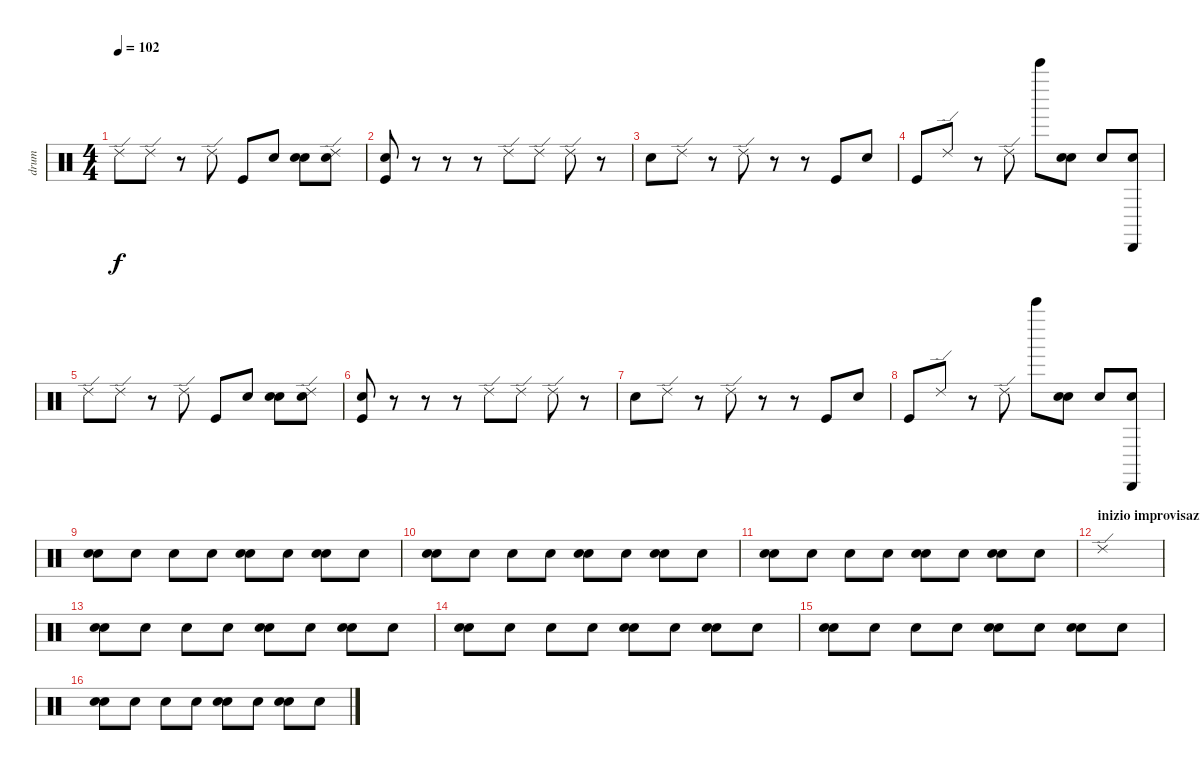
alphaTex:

\track ("drum" "drum") {instrument percussion}
\staff {score}
\articulation defaults
\ts (4 4)
\tempo 102
\clef neutral
\ks c "Ride (edge) 2".8{dy f} "Ride (edge) 2".8
r.8 "Ride (edge) 2".8 "Kick (hit)".8 "Snare (hit) 2".8 ("Snare (hit) 2" "Electric Snare (hit)").8 ("Snare (hit) 2" "Ride (edge) 2").8 |
("Electric Snare (hit)" "Kick (hit)").8 r.8 r.8 r.8 "Ride (edge) 2".8 "Ride (edge) 2".8 "Ride (edge) 2".8 r.8 |
"Snare (hit) 2".8 "Ride (edge) 2".8 r.8 "Ride (edge) 2".8 r.8 r.8 "Kick (hit)".8 "Snare (hit) 2".8 |
"Kick (hit)".8 "Ride (edge) 2".8 r.8 "Ride (edge) 2".8 "Bell Tree (hit)".8 ("Snare (hit) 2" "Electric Snare (hit)").8 "Snare (hit) 2".8 ("Electric Snare (hit)" "Cabasa (hit)").8 |
"Ride (edge) 2".8 "Ride (edge) 2".8 r.8 "Ride (edge) 2".8 "Kick (hit)".8 "Snare (hit) 2".8 ("Snare (hit) 2" "Electric Snare (hit)").8 ("Snare (hit) 2" "Ride (edge) 2").8 |
("Electric Snare (hit)" "Kick (hit)").8 r.8 r.8 r.8 "Ride (edge) 2".8 "Ride (edge) 2".8 "Ride (edge) 2".8 r.8 |
"Snare (hit) 2".8 "Ride (edge) 2".8 r.8 "Ride (edge) 2".8 r.8 r.8 "Kick (hit)".8 "Snare (hit) 2".8 |
"Kick (hit)".8 "Ride (edge) 2".8 r.8 "Ride (edge) 2".8 "Bell Tree (hit)".8 ("Snare (hit) 2" "Electric Snare (hit)").8 "Snare (hit) 2".8 ("Electric Snare (hit)" "Cabasa (hit)").8 |
("Snare (hit) 2" "Electric Snare (hit)").8 "Electric Snare (hit)".8 "Electric Snare (hit)".8 "Electric Snare (hit)".8 ("Snare (hit) 2" "Electric Snare (hit)").8 "Electric Snare (hit)".8 ("Snare (hit) 2" "Electric Snare (hit)").8 "Electric Snare (hit)".8 |
("Snare (hit) 2" "Electric Snare (hit)").8 "Electric Snare (hit)".8 "Electric Snare (hit)".8 "Electric Snare (hit)".8 ("Snare (hit) 2" "Electric Snare (hit)").8 "Electric Snare (hit)".8 ("Snare (hit) 2" "Electric Snare (hit)").8 "Electric Snare (hit)".8 |
("Snare (hit) 2" "Electric Snare (hit)").8 "Electric Snare (hit)".8 "Electric Snare (hit)".8 "Electric Snare (hit)".8 ("Snare (hit) 2" "Electric Snare (hit)").8 "Electric Snare (hit)".8 ("Snare (hit) 2" "Electric Snare (hit)").8 "Electric Snare (hit)".8 |
\section ("" "inizio improvisazione (A)")
"Ride (edge) 2".1 |
("Snare (hit) 2" "Electric Snare (hit)").8 "Electric Snare (hit)".8 "Electric Snare (hit)".8 "Electric Snare (hit)".8 ("Snare (hit) 2" "Electric Snare (hit)").8 "Electric Snare (hit)".8 ("Snare (hit) 2" "Electric Snare (hit)").8 "Electric Snare (hit)".8 |
("Snare (hit) 2" "Electric Snare (hit)").8 "Electric Snare (hit)".8 "Electric Snare (hit)".8 "Electric Snare (hit)".8 ("Snare (hit) 2" "Electric Snare (hit)").8 "Electric Snare (hit)".8 ("Snare (hit) 2" "Electric Snare (hit)").8 "Electric Snare (hit)".8 |
("Snare (hit) 2" "Electric Snare (hit)").8 "Electric Snare (hit)".8 "Electric Snare (hit)".8 "Electric Snare (hit)".8 ("Snare (hit) 2" "Electric Snare (hit)").8 "Electric Snare (hit)".8 ("Snare (hit) 2" "Electric Snare (hit)").8 "Electric Snare (hit)".8 |
("Snare (hit) 2" "Electric Snare (hit)").8 "Electric Snare (hit)".8 "Electric Snare (hit)".8 "Electric Snare (hit)".8 ("Snare (hit) 2" "Electric Snare (hit)").8 "Electric Snare (hit)".8 ("Snare (hit) 2" "Electric Snare (hit)").8 "Electric Snare (hit)".8
